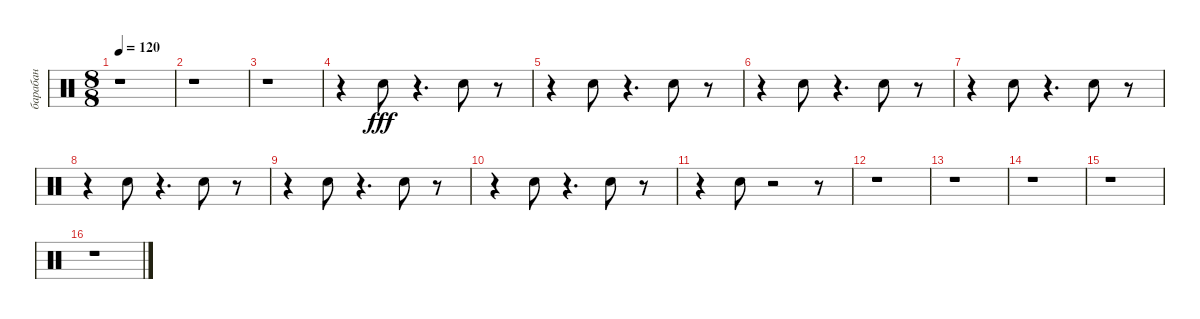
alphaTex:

\track ("барабан" "барабан") {instrument percussion}
\staff {score}
\articulation defaults
\ts (8 8)
\tempo 120
\clef neutral
\ks c
r.1{dy fff} |
r.1 |
r.1 |
r.4 "Snare (hit) 2".8 r.4{d} "Snare (hit) 2".8 r.8 |
r.4 "Snare (hit) 2".8 r.4{d} "Snare (hit) 2".8 r.8 |
r.4 "Snare (hit) 2".8 r.4{d} "Snare (hit) 2".8 r.8 |
r.4 "Snare (hit) 2".8 r.4{d} "Snare (hit) 2".8 r.8 |
r.4 "Snare (hit) 2".8 r.4{d} "Snare (hit) 2".8 r.8 |
r.4 "Snare (hit) 2".8 r.4{d} "Snare (hit) 2".8 r.8 |
r.4 "Snare (hit) 2".8 r.4{d} "Snare (hit) 2".8 r.8 |
r.4 "Snare (hit) 2".8 r.2 r.8 |
r.1 |
r.1 |
r.1 |
r.1 |
r.1
